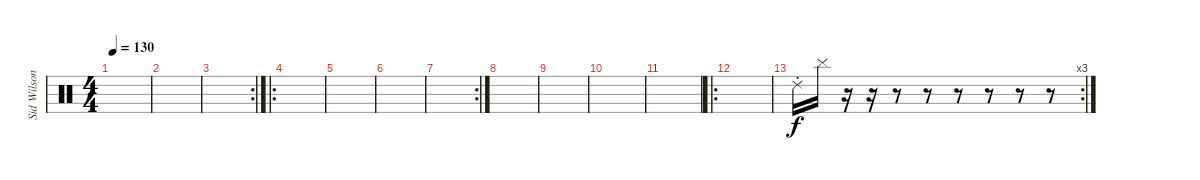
\track ("Sid Wilson " "Sid Wilson") {instrument percussion}
\staff {score}
\articulation defaults
\ts (4 4)
\tempo 130
\clef neutral
\ks c
|
|
\rc 2
|
\ro
|
|
|
\rc 2
|
|
|
|
|
\ro
|
\rc 3 "Ride (choke) 2".16 "Cymbal (hit)".16
r.16 r.16 r.8 r.8 r.8 r.8 r.8 r.8
